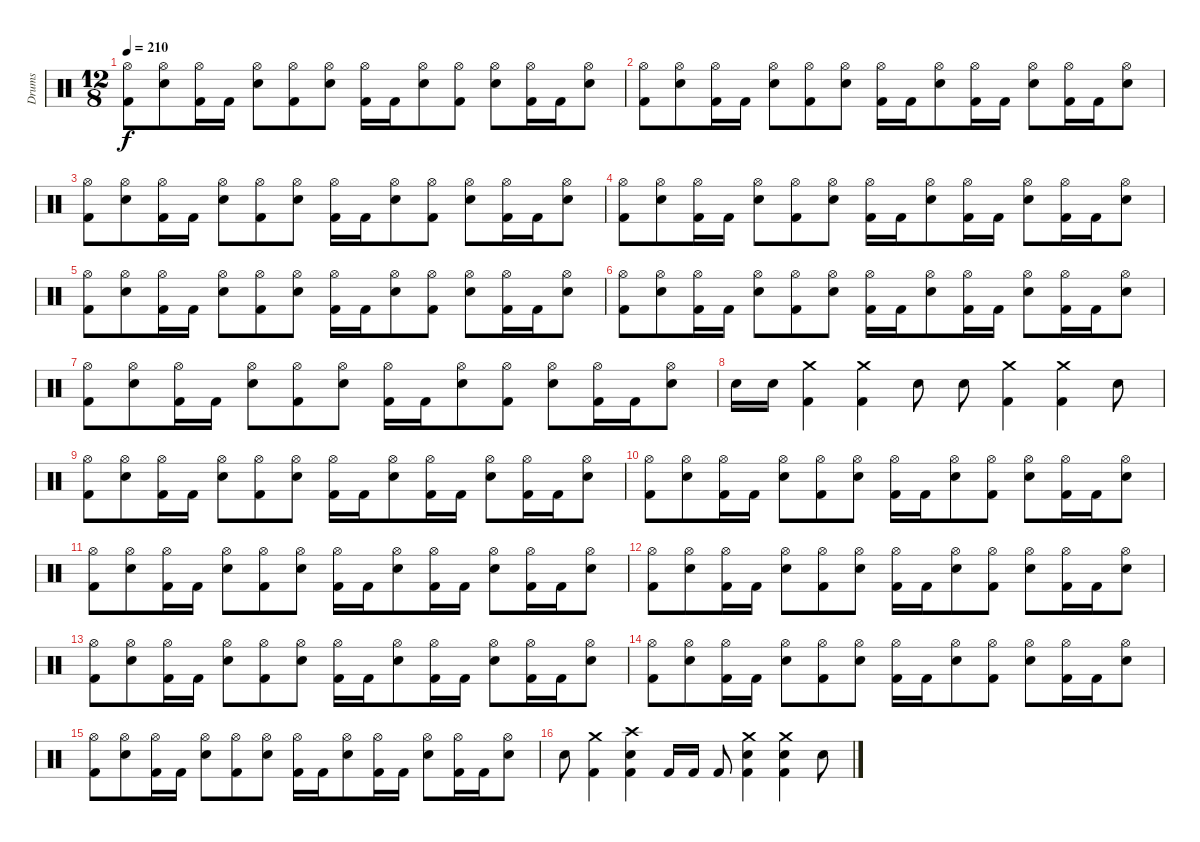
\track ("Drums" "Drums") {instrument percussion}
\staff {score}
\articulation defaults
\ts (12 8)
\tempo 210
\clef neutral
\ks c
("Hi-Hat (open)" "Kick (hit) 2").8{dy f} ("Hi-Hat (open)" "Snare (hit) 2").8 ("Hi-Hat (open)" "Kick (hit) 2").16 "Kick (hit) 2".16 ("Hi-Hat (open)" "Snare (hit) 2").8 ("Hi-Hat (open)" "Kick (hit) 2").8 ("Hi-Hat (open)" "Snare (hit) 2").8 ("Hi-Hat (open)" "Kick (hit) 2").16 "Kick (hit) 2".16 ("Hi-Hat (open)" "Snare (hit) 2").8 ("Hi-Hat (open)" "Kick (hit) 2").8 ("Hi-Hat (open)" "Snare (hit) 2").8 ("Hi-Hat (open)" "Kick (hit) 2").16 "Kick (hit) 2".16 ("Hi-Hat (open)" "Snare (hit) 2").8 |
("Hi-Hat (open)" "Kick (hit) 2").8 ("Hi-Hat (open)" "Snare (hit) 2").8 ("Hi-Hat (open)" "Kick (hit) 2").16 "Kick (hit) 2".16 ("Hi-Hat (open)" "Snare (hit) 2").8 ("Hi-Hat (open)" "Kick (hit) 2").8 ("Hi-Hat (open)" "Snare (hit) 2").8 ("Hi-Hat (open)" "Kick (hit) 2").16 "Kick (hit) 2".16 ("Hi-Hat (open)" "Snare (hit) 2").8 ("Hi-Hat (open)" "Kick (hit) 2").16 "Kick (hit) 2".16 ("Hi-Hat (open)" "Snare (hit) 2").8 ("Hi-Hat (open)" "Kick (hit) 2").16 "Kick (hit) 2".16 ("Hi-Hat (open)" "Snare (hit) 2").8 |
("Hi-Hat (open)" "Kick (hit) 2").8 ("Hi-Hat (open)" "Snare (hit) 2").8 ("Hi-Hat (open)" "Kick (hit) 2").16 "Kick (hit) 2".16 ("Hi-Hat (open)" "Snare (hit) 2").8 ("Hi-Hat (open)" "Kick (hit) 2").8 ("Hi-Hat (open)" "Snare (hit) 2").8 ("Hi-Hat (open)" "Kick (hit) 2").16 "Kick (hit) 2".16 ("Hi-Hat (open)" "Snare (hit) 2").8 ("Hi-Hat (open)" "Kick (hit) 2").8 ("Hi-Hat (open)" "Snare (hit) 2").8 ("Hi-Hat (open)" "Kick (hit) 2").16 "Kick (hit) 2".16 ("Hi-Hat (open)" "Snare (hit) 2").8 |
("Hi-Hat (open)" "Kick (hit) 2").8 ("Hi-Hat (open)" "Snare (hit) 2").8 ("Hi-Hat (open)" "Kick (hit) 2").16 "Kick (hit) 2".16 ("Hi-Hat (open)" "Snare (hit) 2").8 ("Hi-Hat (open)" "Kick (hit) 2").8 ("Hi-Hat (open)" "Snare (hit) 2").8 ("Hi-Hat (open)" "Kick (hit) 2").16 "Kick (hit) 2".16 ("Hi-Hat (open)" "Snare (hit) 2").8 ("Hi-Hat (open)" "Kick (hit) 2").16 "Kick (hit) 2".16 ("Hi-Hat (open)" "Snare (hit) 2").8 ("Hi-Hat (open)" "Kick (hit) 2").16 "Kick (hit) 2".16 ("Hi-Hat (open)" "Snare (hit) 2").8 |
("Hi-Hat (open)" "Kick (hit) 2").8 ("Hi-Hat (open)" "Snare (hit) 2").8 ("Hi-Hat (open)" "Kick (hit) 2").16 "Kick (hit) 2".16 ("Hi-Hat (open)" "Snare (hit) 2").8 ("Hi-Hat (open)" "Kick (hit) 2").8 ("Hi-Hat (open)" "Snare (hit) 2").8 ("Hi-Hat (open)" "Kick (hit) 2").16 "Kick (hit) 2".16 ("Hi-Hat (open)" "Snare (hit) 2").8 ("Hi-Hat (open)" "Kick (hit) 2").8 ("Hi-Hat (open)" "Snare (hit) 2").8 ("Hi-Hat (open)" "Kick (hit) 2").16 "Kick (hit) 2".16 ("Hi-Hat (open)" "Snare (hit) 2").8 |
("Hi-Hat (open)" "Kick (hit) 2").8 ("Hi-Hat (open)" "Snare (hit) 2").8 ("Hi-Hat (open)" "Kick (hit) 2").16 "Kick (hit) 2".16 ("Hi-Hat (open)" "Snare (hit) 2").8 ("Hi-Hat (open)" "Kick (hit) 2").8 ("Hi-Hat (open)" "Snare (hit) 2").8 ("Hi-Hat (open)" "Kick (hit) 2").16 "Kick (hit) 2".16 ("Hi-Hat (open)" "Snare (hit) 2").8 ("Hi-Hat (open)" "Kick (hit) 2").16 "Kick (hit) 2".16 ("Hi-Hat (open)" "Snare (hit) 2").8 ("Hi-Hat (open)" "Kick (hit) 2").16 "Kick (hit) 2".16 ("Hi-Hat (open)" "Snare (hit) 2").8 |
("Hi-Hat (open)" "Kick (hit) 2").8 ("Hi-Hat (open)" "Snare (hit) 2").8 ("Hi-Hat (open)" "Kick (hit) 2").16 "Kick (hit) 2".16 ("Hi-Hat (open)" "Snare (hit) 2").8 ("Hi-Hat (open)" "Kick (hit) 2").8 ("Hi-Hat (open)" "Snare (hit) 2").8 ("Hi-Hat (open)" "Kick (hit) 2").16 "Kick (hit) 2".16 ("Hi-Hat (open)" "Snare (hit) 2").8 ("Hi-Hat (open)" "Kick (hit) 2").8 ("Hi-Hat (open)" "Snare (hit) 2").8 ("Hi-Hat (open)" "Kick (hit) 2").16 "Kick (hit) 2".16 ("Hi-Hat (open)" "Snare (hit) 2").8 |
"Snare (hit) 2".16 "Snare (hit) 2".16 ("Crash medium (hit)" "Kick (hit) 2").4 ("Crash medium (hit)" "Kick (hit) 2").4 "Snare (hit) 2".8 "Snare (hit) 2".8 ("Crash medium (hit)" "Kick (hit) 2").4 ("Crash medium (hit)" "Kick (hit) 2").4 "Snare (hit) 2".8 |
("Hi-Hat (open)" "Kick (hit) 2").8 ("Hi-Hat (open)" "Snare (hit) 2").8 ("Hi-Hat (open)" "Kick (hit) 2").16 "Kick (hit) 2".16 ("Hi-Hat (open)" "Snare (hit) 2").8 ("Hi-Hat (open)" "Kick (hit) 2").8 ("Hi-Hat (open)" "Snare (hit) 2").8 ("Hi-Hat (open)" "Kick (hit) 2").16 "Kick (hit) 2".16 ("Hi-Hat (open)" "Snare (hit) 2").8 ("Hi-Hat (open)" "Kick (hit) 2").16 "Kick (hit) 2".16 ("Hi-Hat (open)" "Snare (hit) 2").8 ("Hi-Hat (open)" "Kick (hit) 2").16 "Kick (hit) 2".16 ("Hi-Hat (open)" "Snare (hit) 2").8 |
("Hi-Hat (open)" "Kick (hit) 2").8 ("Hi-Hat (open)" "Snare (hit) 2").8 ("Hi-Hat (open)" "Kick (hit) 2").16 "Kick (hit) 2".16 ("Hi-Hat (open)" "Snare (hit) 2").8 ("Hi-Hat (open)" "Kick (hit) 2").8 ("Hi-Hat (open)" "Snare (hit) 2").8 ("Hi-Hat (open)" "Kick (hit) 2").16 "Kick (hit) 2".16 ("Hi-Hat (open)" "Snare (hit) 2").8 ("Hi-Hat (open)" "Kick (hit) 2").8 ("Hi-Hat (open)" "Snare (hit) 2").8 ("Hi-Hat (open)" "Kick (hit) 2").16 "Kick (hit) 2".16 ("Hi-Hat (open)" "Snare (hit) 2").8 |
("Hi-Hat (open)" "Kick (hit) 2").8 ("Hi-Hat (open)" "Snare (hit) 2").8 ("Hi-Hat (open)" "Kick (hit) 2").16 "Kick (hit) 2".16 ("Hi-Hat (open)" "Snare (hit) 2").8 ("Hi-Hat (open)" "Kick (hit) 2").8 ("Hi-Hat (open)" "Snare (hit) 2").8 ("Hi-Hat (open)" "Kick (hit) 2").16 "Kick (hit) 2".16 ("Hi-Hat (open)" "Snare (hit) 2").8 ("Hi-Hat (open)" "Kick (hit) 2").16 "Kick (hit) 2".16 ("Hi-Hat (open)" "Snare (hit) 2").8 ("Hi-Hat (open)" "Kick (hit) 2").16 "Kick (hit) 2".16 ("Hi-Hat (open)" "Snare (hit) 2").8 |
("Hi-Hat (open)" "Kick (hit) 2").8 ("Hi-Hat (open)" "Snare (hit) 2").8 ("Hi-Hat (open)" "Kick (hit) 2").16 "Kick (hit) 2".16 ("Hi-Hat (open)" "Snare (hit) 2").8 ("Hi-Hat (open)" "Kick (hit) 2").8 ("Hi-Hat (open)" "Snare (hit) 2").8 ("Hi-Hat (open)" "Kick (hit) 2").16 "Kick (hit) 2".16 ("Hi-Hat (open)" "Snare (hit) 2").8 ("Hi-Hat (open)" "Kick (hit) 2").8 ("Hi-Hat (open)" "Snare (hit) 2").8 ("Hi-Hat (open)" "Kick (hit) 2").16 "Kick (hit) 2".16 ("Hi-Hat (open)" "Snare (hit) 2").8 |
("Hi-Hat (open)" "Kick (hit) 2").8 ("Hi-Hat (open)" "Snare (hit) 2").8 ("Hi-Hat (open)" "Kick (hit) 2").16 "Kick (hit) 2".16 ("Hi-Hat (open)" "Snare (hit) 2").8 ("Hi-Hat (open)" "Kick (hit) 2").8 ("Hi-Hat (open)" "Snare (hit) 2").8 ("Hi-Hat (open)" "Kick (hit) 2").16 "Kick (hit) 2".16 ("Hi-Hat (open)" "Snare (hit) 2").8 ("Hi-Hat (open)" "Kick (hit) 2").16 "Kick (hit) 2".16 ("Hi-Hat (open)" "Snare (hit) 2").8 ("Hi-Hat (open)" "Kick (hit) 2").16 "Kick (hit) 2".16 ("Hi-Hat (open)" "Snare (hit) 2").8 |
("Hi-Hat (open)" "Kick (hit) 2").8 ("Hi-Hat (open)" "Snare (hit) 2").8 ("Hi-Hat (open)" "Kick (hit) 2").16 "Kick (hit) 2".16 ("Hi-Hat (open)" "Snare (hit) 2").8 ("Hi-Hat (open)" "Kick (hit) 2").8 ("Hi-Hat (open)" "Snare (hit) 2").8 ("Hi-Hat (open)" "Kick (hit) 2").16 "Kick (hit) 2".16 ("Hi-Hat (open)" "Snare (hit) 2").8 ("Hi-Hat (open)" "Kick (hit) 2").8 ("Hi-Hat (open)" "Snare (hit) 2").8 ("Hi-Hat (open)" "Kick (hit) 2").16 "Kick (hit) 2".16 ("Hi-Hat (open)" "Snare (hit) 2").8 |
("Hi-Hat (open)" "Kick (hit) 2").8 ("Hi-Hat (open)" "Snare (hit) 2").8 ("Hi-Hat (open)" "Kick (hit) 2").16 "Kick (hit) 2".16 ("Hi-Hat (open)" "Snare (hit) 2").8 ("Hi-Hat (open)" "Kick (hit) 2").8 ("Hi-Hat (open)" "Snare (hit) 2").8 ("Hi-Hat (open)" "Kick (hit) 2").16 "Kick (hit) 2".16 ("Hi-Hat (open)" "Snare (hit) 2").8 ("Hi-Hat (open)" "Kick (hit) 2").16 "Kick (hit) 2".16 ("Hi-Hat (open)" "Snare (hit) 2").8 ("Hi-Hat (open)" "Kick (hit) 2").16 "Kick (hit) 2".16 ("Hi-Hat (open)" "Snare (hit) 2").8 |
"Snare (hit) 2".8 ("Crash medium (hit)" "Kick (hit) 2").4 ("Crash high (hit)" "Snare (hit) 2" "Kick (hit) 2").4 "Kick (hit) 2".16 "Kick (hit) 2".16 "Kick (hit) 2".8 ("Crash medium (hit)" "Snare (hit) 2" "Kick (hit) 2").4 ("Crash medium (hit)" "Snare (hit) 2" "Kick (hit) 2").4 "Snare (hit) 2".8
